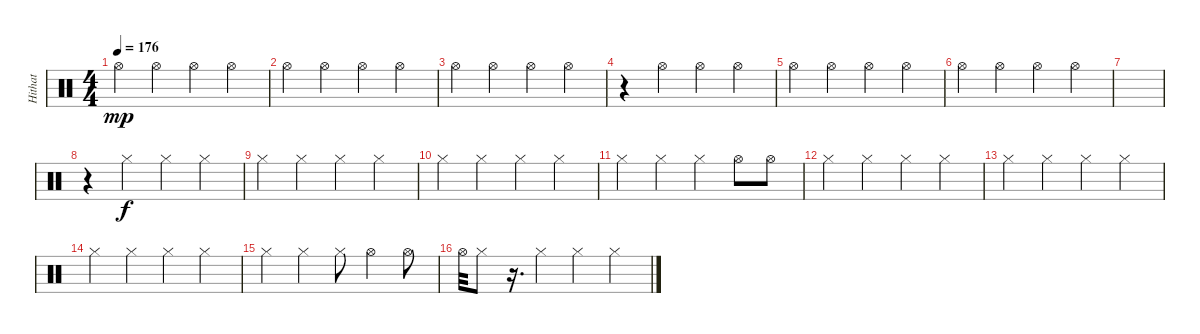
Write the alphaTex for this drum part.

\track ("Hithat" "Hithat") {instrument percussion}
\staff {score}
\articulation defaults
\ts (4 4)
\tempo 176
\clef neutral
\ks c "Hi-Hat (open)".4{dy mp} "Hi-Hat (open)".4 "Hi-Hat (open)".4 "Hi-Hat (open)".4
|
"Hi-Hat (open)".4 "Hi-Hat (open)".4 "Hi-Hat (open)".4 "Hi-Hat (open)".4 |
"Hi-Hat (open)".4 "Hi-Hat (open)".4 "Hi-Hat (open)".4 "Hi-Hat (open)".4 |
r.4 "Hi-Hat (open)".4 "Hi-Hat (open)".4 "Hi-Hat (open)".4 |
"Hi-Hat (open)".4 "Hi-Hat (open)".4 "Hi-Hat (open)".4 "Hi-Hat (open)".4 |
"Hi-Hat (open)".4 "Hi-Hat (open)".4 "Hi-Hat (open)".4 "Hi-Hat (open)".4 |
|
r.4 "Hi-Hat (closed)".4{dy f} "Hi-Hat (closed)".4 "Hi-Hat (closed)".4 |
"Hi-Hat (closed)".4 "Hi-Hat (closed)".4 "Hi-Hat (closed)".4 "Hi-Hat (closed)".4 |
"Hi-Hat (closed)".4 "Hi-Hat (closed)".4 "Hi-Hat (closed)".4 "Hi-Hat (closed)".4 |
"Hi-Hat (closed)".4 "Hi-Hat (closed)".4 "Hi-Hat (closed)".4 "Hi-Hat (open)".8 "Hi-Hat (open)".8 |
"Hi-Hat (closed)".4 "Hi-Hat (closed)".4 "Hi-Hat (closed)".4 "Hi-Hat (closed)".4 |
"Hi-Hat (closed)".4 "Hi-Hat (closed)".4 "Hi-Hat (closed)".4 "Hi-Hat (closed)".4 |
"Hi-Hat (closed)".4 "Hi-Hat (closed)".4 "Hi-Hat (closed)".4 "Hi-Hat (closed)".4 |
"Hi-Hat (closed)".4 "Hi-Hat (closed)".4 "Hi-Hat (closed)".8 "Hi-Hat (open)".4 "Hi-Hat (open)".8 |
"Hi-Hat (open)".32 "Hi-Hat (closed)".8 r.16{d} "Hi-Hat (closed)".4 "Hi-Hat (closed)".4 "Hi-Hat (closed)".4
